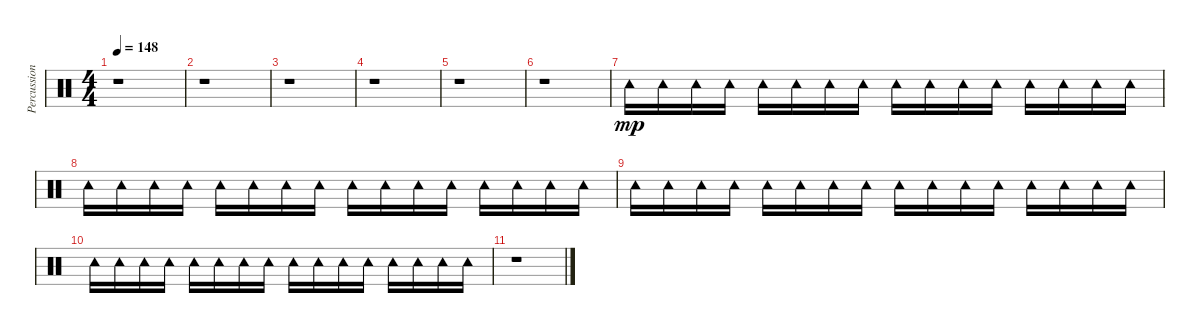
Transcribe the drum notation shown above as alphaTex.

\track ("Percussion" "Percussion") {instrument percussion}
\staff {score}
\articulation defaults
\ts (4 4)
\tempo 148
\clef neutral
\ks c
r.1{dy mp} |
r.1 |
r.1 |
r.1 |
r.1 |
r.1 |
"Tambourine (hit)".16 "Tambourine (hit)".16 "Tambourine (hit)".16 "Tambourine (hit)".16 "Tambourine (hit)".16 "Tambourine (hit)".16 "Tambourine (hit)".16 "Tambourine (hit)".16 "Tambourine (hit)".16 "Tambourine (hit)".16 "Tambourine (hit)".16 "Tambourine (hit)".16 "Tambourine (hit)".16 "Tambourine (hit)".16 "Tambourine (hit)".16 "Tambourine (hit)".16 |
"Tambourine (hit)".16 "Tambourine (hit)".16 "Tambourine (hit)".16 "Tambourine (hit)".16 "Tambourine (hit)".16 "Tambourine (hit)".16 "Tambourine (hit)".16 "Tambourine (hit)".16 "Tambourine (hit)".16 "Tambourine (hit)".16 "Tambourine (hit)".16 "Tambourine (hit)".16 "Tambourine (hit)".16 "Tambourine (hit)".16 "Tambourine (hit)".16 "Tambourine (hit)".16 |
"Tambourine (hit)".16 "Tambourine (hit)".16 "Tambourine (hit)".16 "Tambourine (hit)".16 "Tambourine (hit)".16 "Tambourine (hit)".16 "Tambourine (hit)".16 "Tambourine (hit)".16 "Tambourine (hit)".16 "Tambourine (hit)".16 "Tambourine (hit)".16 "Tambourine (hit)".16 "Tambourine (hit)".16 "Tambourine (hit)".16 "Tambourine (hit)".16 "Tambourine (hit)".16 |
"Tambourine (hit)".16 "Tambourine (hit)".16 "Tambourine (hit)".16 "Tambourine (hit)".16 "Tambourine (hit)".16 "Tambourine (hit)".16 "Tambourine (hit)".16 "Tambourine (hit)".16 "Tambourine (hit)".16 "Tambourine (hit)".16 "Tambourine (hit)".16 "Tambourine (hit)".16 "Tambourine (hit)".16 "Tambourine (hit)".16 "Tambourine (hit)".16 "Tambourine (hit)".16 |
r.1
